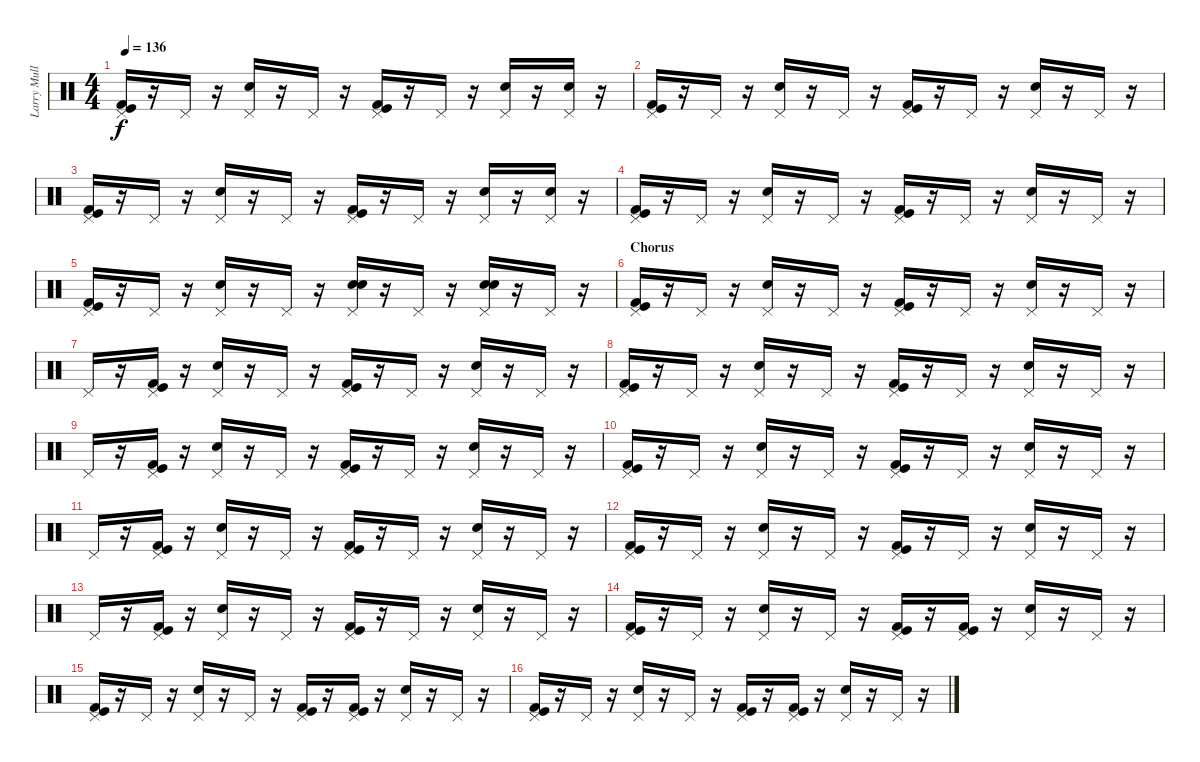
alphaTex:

\track ("Larry Mullen Jr." "Larry Mull") {instrument percussion}
\staff {score}
\articulation defaults
\ts (4 4)
\tempo 136
\clef neutral
\ks c
("Kick (hit) 2" "Kick (hit)" "Pedal Hi-Hat (hit)").16{dy f} r.16 "Pedal Hi-Hat (hit)".16 r.16 ("Snare (hit) 2" "Pedal Hi-Hat (hit)").16 r.16 "Pedal Hi-Hat (hit)".16 r.16 ("Kick (hit) 2" "Kick (hit)" "Pedal Hi-Hat (hit)").16 r.16 "Pedal Hi-Hat (hit)".16 r.16 ("Snare (hit) 2" "Pedal Hi-Hat (hit)").16 r.16 ("Snare (hit) 2" "Pedal Hi-Hat (hit)").16 r.16 |
("Kick (hit) 2" "Kick (hit)" "Pedal Hi-Hat (hit)").16 r.16 "Pedal Hi-Hat (hit)".16 r.16 ("Snare (hit) 2" "Pedal Hi-Hat (hit)").16 r.16 "Pedal Hi-Hat (hit)".16 r.16 ("Kick (hit) 2" "Kick (hit)" "Pedal Hi-Hat (hit)").16 r.16 "Pedal Hi-Hat (hit)".16 r.16 ("Snare (hit) 2" "Pedal Hi-Hat (hit)").16 r.16 "Pedal Hi-Hat (hit)".16 r.16 |
("Kick (hit) 2" "Kick (hit)" "Pedal Hi-Hat (hit)").16 r.16 "Pedal Hi-Hat (hit)".16 r.16 ("Snare (hit) 2" "Pedal Hi-Hat (hit)").16 r.16 "Pedal Hi-Hat (hit)".16 r.16 ("Kick (hit) 2" "Kick (hit)" "Pedal Hi-Hat (hit)").16 r.16 "Pedal Hi-Hat (hit)".16 r.16 ("Snare (hit) 2" "Pedal Hi-Hat (hit)").16 r.16 ("Snare (hit) 2" "Pedal Hi-Hat (hit)").16 r.16 |
("Kick (hit) 2" "Kick (hit)" "Pedal Hi-Hat (hit)").16 r.16 "Pedal Hi-Hat (hit)".16 r.16 ("Snare (hit) 2" "Pedal Hi-Hat (hit)").16 r.16 "Pedal Hi-Hat (hit)".16 r.16 ("Kick (hit) 2" "Kick (hit)" "Pedal Hi-Hat (hit)").16 r.16 "Pedal Hi-Hat (hit)".16 r.16 ("Snare (hit) 2" "Pedal Hi-Hat (hit)").16 r.16 "Pedal Hi-Hat (hit)".16 r.16 |
("Kick (hit) 2" "Kick (hit)" "Pedal Hi-Hat (hit)").16 r.16 "Pedal Hi-Hat (hit)".16 r.16 ("Snare (hit) 2" "Pedal Hi-Hat (hit)").16 r.16 "Pedal Hi-Hat (hit)".16 r.16 ("Snare (hit) 2" "Snare (hit) 2" "Pedal Hi-Hat (hit)").16 r.16 "Pedal Hi-Hat (hit)".16 r.16 ("Snare (hit) 2" "Snare (hit) 2" "Pedal Hi-Hat (hit)").16 r.16 "Pedal Hi-Hat (hit)".16 r.16 |
\section ("" "Chorus")
("Kick (hit) 2" "Kick (hit)" "Pedal Hi-Hat (hit)").16 r.16 "Pedal Hi-Hat (hit)".16 r.16 ("Snare (hit) 2" "Pedal Hi-Hat (hit)").16 r.16 "Pedal Hi-Hat (hit)".16 r.16 ("Kick (hit) 2" "Kick (hit)" "Pedal Hi-Hat (hit)").16 r.16 "Pedal Hi-Hat (hit)".16 r.16 ("Snare (hit) 2" "Pedal Hi-Hat (hit)").16 r.16 "Pedal Hi-Hat (hit)".16 r.16 |
"Pedal Hi-Hat (hit)".16 r.16 ("Kick (hit) 2" "Kick (hit)" "Pedal Hi-Hat (hit)").16 r.16 ("Snare (hit) 2" "Pedal Hi-Hat (hit)").16 r.16 "Pedal Hi-Hat (hit)".16 r.16 ("Kick (hit) 2" "Kick (hit)" "Pedal Hi-Hat (hit)").16 r.16 "Pedal Hi-Hat (hit)".16 r.16 ("Snare (hit) 2" "Pedal Hi-Hat (hit)").16 r.16 "Pedal Hi-Hat (hit)".16 r.16 |
("Kick (hit) 2" "Kick (hit)" "Pedal Hi-Hat (hit)").16 r.16 "Pedal Hi-Hat (hit)".16 r.16 ("Snare (hit) 2" "Pedal Hi-Hat (hit)").16 r.16 "Pedal Hi-Hat (hit)".16 r.16 ("Kick (hit) 2" "Kick (hit)" "Pedal Hi-Hat (hit)").16 r.16 "Pedal Hi-Hat (hit)".16 r.16 ("Snare (hit) 2" "Pedal Hi-Hat (hit)").16 r.16 "Pedal Hi-Hat (hit)".16 r.16 |
"Pedal Hi-Hat (hit)".16 r.16 ("Kick (hit) 2" "Kick (hit)" "Pedal Hi-Hat (hit)").16 r.16 ("Snare (hit) 2" "Pedal Hi-Hat (hit)").16 r.16 "Pedal Hi-Hat (hit)".16 r.16 ("Kick (hit) 2" "Kick (hit)" "Pedal Hi-Hat (hit)").16 r.16 "Pedal Hi-Hat (hit)".16 r.16 ("Snare (hit) 2" "Pedal Hi-Hat (hit)").16 r.16 "Pedal Hi-Hat (hit)".16 r.16 |
("Kick (hit) 2" "Kick (hit)" "Pedal Hi-Hat (hit)").16 r.16 "Pedal Hi-Hat (hit)".16 r.16 ("Snare (hit) 2" "Pedal Hi-Hat (hit)").16 r.16 "Pedal Hi-Hat (hit)".16 r.16 ("Kick (hit) 2" "Kick (hit)" "Pedal Hi-Hat (hit)").16 r.16 "Pedal Hi-Hat (hit)".16 r.16 ("Snare (hit) 2" "Pedal Hi-Hat (hit)").16 r.16 "Pedal Hi-Hat (hit)".16 r.16 |
"Pedal Hi-Hat (hit)".16 r.16 ("Kick (hit) 2" "Kick (hit)" "Pedal Hi-Hat (hit)").16 r.16 ("Snare (hit) 2" "Pedal Hi-Hat (hit)").16 r.16 "Pedal Hi-Hat (hit)".16 r.16 ("Kick (hit) 2" "Kick (hit)" "Pedal Hi-Hat (hit)").16 r.16 "Pedal Hi-Hat (hit)".16 r.16 ("Snare (hit) 2" "Pedal Hi-Hat (hit)").16 r.16 "Pedal Hi-Hat (hit)".16 r.16 |
("Kick (hit) 2" "Kick (hit)" "Pedal Hi-Hat (hit)").16 r.16 "Pedal Hi-Hat (hit)".16 r.16 ("Snare (hit) 2" "Pedal Hi-Hat (hit)").16 r.16 "Pedal Hi-Hat (hit)".16 r.16 ("Kick (hit) 2" "Kick (hit)" "Pedal Hi-Hat (hit)").16 r.16 "Pedal Hi-Hat (hit)".16 r.16 ("Snare (hit) 2" "Pedal Hi-Hat (hit)").16 r.16 "Pedal Hi-Hat (hit)".16 r.16 |
"Pedal Hi-Hat (hit)".16 r.16 ("Kick (hit) 2" "Kick (hit)" "Pedal Hi-Hat (hit)").16 r.16 ("Snare (hit) 2" "Pedal Hi-Hat (hit)").16 r.16 "Pedal Hi-Hat (hit)".16 r.16 ("Kick (hit) 2" "Kick (hit)" "Pedal Hi-Hat (hit)").16 r.16 "Pedal Hi-Hat (hit)".16 r.16 ("Snare (hit) 2" "Pedal Hi-Hat (hit)").16 r.16 "Pedal Hi-Hat (hit)".16 r.16 |
("Kick (hit) 2" "Kick (hit)" "Pedal Hi-Hat (hit)").16 r.16 "Pedal Hi-Hat (hit)".16 r.16 ("Electric Snare (hit)" "Pedal Hi-Hat (hit)").16 r.16 "Pedal Hi-Hat (hit)".16 r.16 ("Kick (hit) 2" "Kick (hit)" "Pedal Hi-Hat (hit)").16 r.16 ("Kick (hit) 2" "Kick (hit)" "Pedal Hi-Hat (hit)").16 r.16 ("Electric Snare (hit)" "Pedal Hi-Hat (hit)").16 r.16 "Pedal Hi-Hat (hit)".16 r.16 |
("Kick (hit) 2" "Kick (hit)" "Pedal Hi-Hat (hit)").16 r.16 "Pedal Hi-Hat (hit)".16 r.16 ("Electric Snare (hit)" "Pedal Hi-Hat (hit)").16 r.16 "Pedal Hi-Hat (hit)".16 r.16 ("Kick (hit) 2" "Kick (hit)" "Pedal Hi-Hat (hit)").16 r.16 ("Kick (hit) 2" "Kick (hit)" "Pedal Hi-Hat (hit)").16 r.16 ("Electric Snare (hit)" "Pedal Hi-Hat (hit)").16 r.16 "Pedal Hi-Hat (hit)".16 r.16 |
("Kick (hit) 2" "Kick (hit)" "Pedal Hi-Hat (hit)").16 r.16 "Pedal Hi-Hat (hit)".16 r.16 ("Electric Snare (hit)" "Pedal Hi-Hat (hit)").16 r.16 "Pedal Hi-Hat (hit)".16 r.16 ("Kick (hit) 2" "Kick (hit)" "Pedal Hi-Hat (hit)").16 r.16 ("Kick (hit) 2" "Kick (hit)" "Pedal Hi-Hat (hit)").16 r.16 ("Electric Snare (hit)" "Pedal Hi-Hat (hit)").16 r.16 "Pedal Hi-Hat (hit)".16 r.16
